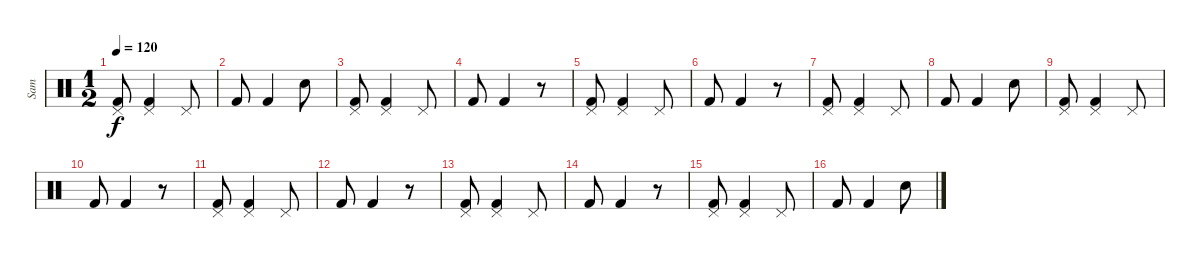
\track ("Sam" "Sam") {instrument percussion}
\staff {score}
\articulation defaults
\ts (1 2)
\tempo 120
\clef neutral
\ks c
("Pedal Hi-Hat (hit)" "Kick (hit) 2").8{dy f} ("Pedal Hi-Hat (hit)" "Kick (hit) 2").4 "Pedal Hi-Hat (hit)".8 |
"Kick (hit) 2".8 "Kick (hit) 2".4 "Electric Snare (hit)".8 |
("Pedal Hi-Hat (hit)" "Kick (hit) 2").8 ("Pedal Hi-Hat (hit)" "Kick (hit) 2").4 "Pedal Hi-Hat (hit)".8 |
"Kick (hit) 2".8 "Kick (hit) 2".4 r.8 |
("Pedal Hi-Hat (hit)" "Kick (hit) 2").8 ("Pedal Hi-Hat (hit)" "Kick (hit) 2").4 "Pedal Hi-Hat (hit)".8 |
"Kick (hit) 2".8 "Kick (hit) 2".4 r.8 |
("Pedal Hi-Hat (hit)" "Kick (hit) 2").8 ("Pedal Hi-Hat (hit)" "Kick (hit) 2").4 "Pedal Hi-Hat (hit)".8 |
"Kick (hit) 2".8 "Kick (hit) 2".4 "Electric Snare (hit)".8 |
("Pedal Hi-Hat (hit)" "Kick (hit) 2").8 ("Pedal Hi-Hat (hit)" "Kick (hit) 2").4 "Pedal Hi-Hat (hit)".8 |
"Kick (hit) 2".8 "Kick (hit) 2".4 r.8 |
("Pedal Hi-Hat (hit)" "Kick (hit) 2").8 ("Pedal Hi-Hat (hit)" "Kick (hit) 2").4 "Pedal Hi-Hat (hit)".8 |
"Kick (hit) 2".8 "Kick (hit) 2".4 r.8 |
("Pedal Hi-Hat (hit)" "Kick (hit) 2").8 ("Pedal Hi-Hat (hit)" "Kick (hit) 2").4 "Pedal Hi-Hat (hit)".8 |
"Kick (hit) 2".8 "Kick (hit) 2".4 r.8 |
("Pedal Hi-Hat (hit)" "Kick (hit) 2").8 ("Pedal Hi-Hat (hit)" "Kick (hit) 2").4 "Pedal Hi-Hat (hit)".8 |
"Kick (hit) 2".8 "Kick (hit) 2".4 "Electric Snare (hit)".8
